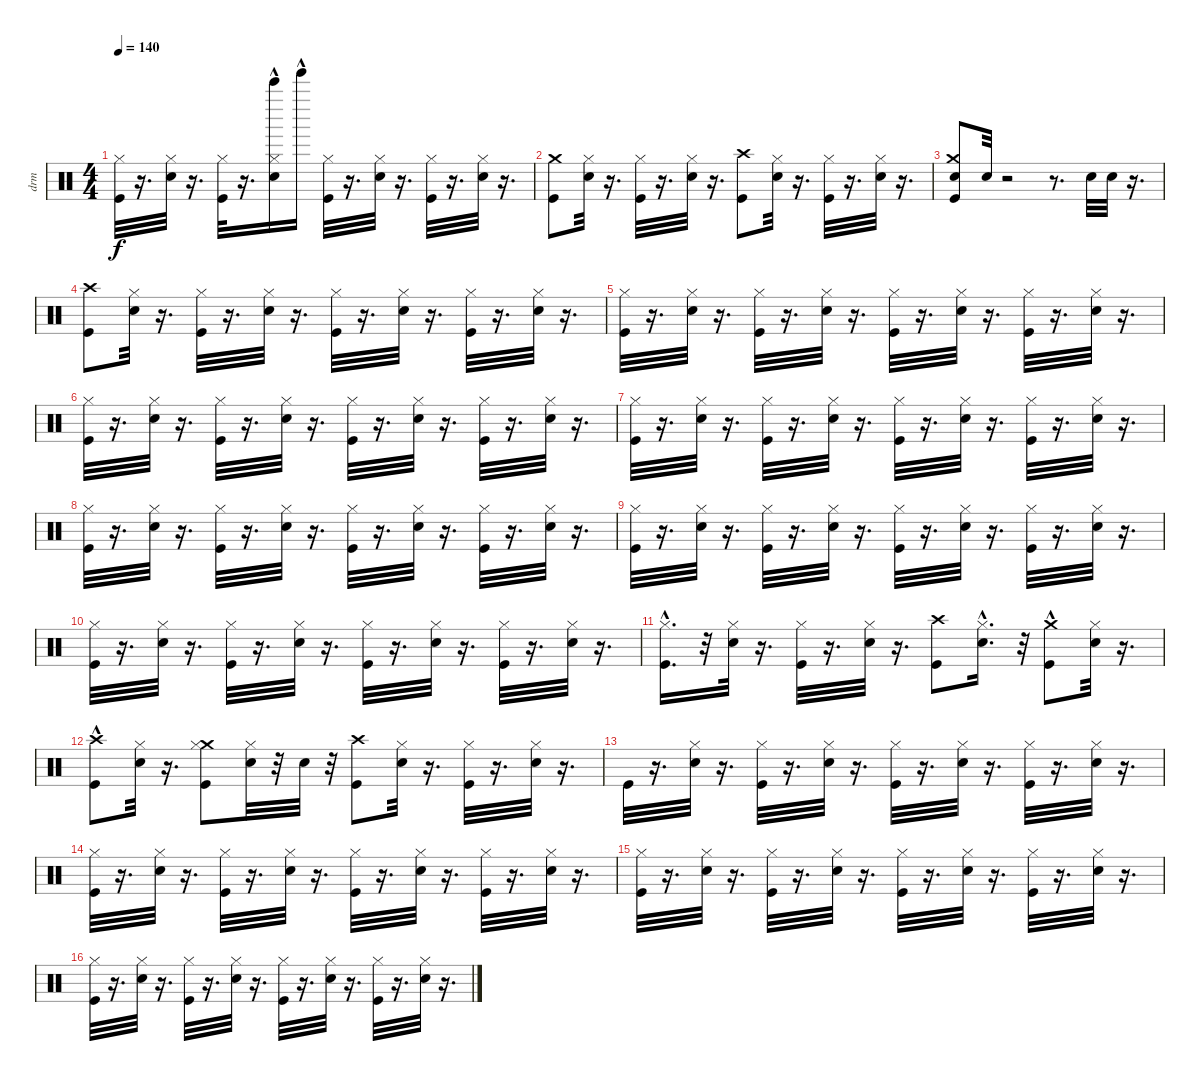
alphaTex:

\track ("drm" "drm") {instrument percussion}
\staff {score}
\articulation defaults
\ts (4 4)
\tempo 140
\clef neutral
\ks c
("Kick (hit)" "Hi-Hat (closed)").32{dy f} r.16{d} ("Snare (hit) 2" "Hi-Hat (closed)").32 r.16{d} ("Kick (hit)" "Hi-Hat (closed)").32 r.16{d} ("Bell Tree (hit)"{hac} "Snare (hit) 2" "Hi-Hat (closed)").16 "Tinkle Bell (hit)"{hac}.16 ("Kick (hit)" "Hi-Hat (closed)").32 r.16{d} ("Snare (hit) 2" "Hi-Hat (closed)").32 r.16{d} ("Kick (hit)" "Hi-Hat (closed)").32 r.16{d} ("Snare (hit) 2" "Hi-Hat (closed)").32 r.16{d} |
("Crash medium (hit)" "Kick (hit)").8 ("Snare (hit) 2" "Hi-Hat (closed)").32 r.16{d} ("Kick (hit)" "Hi-Hat (closed)").32 r.16{d} ("Snare (hit) 2" "Hi-Hat (closed)").32 r.16{d} ("Crash high (hit)" "Kick (hit)").8 ("Snare (hit) 2" "Hi-Hat (closed)").32 r.16{d} ("Kick (hit)" "Hi-Hat (closed)").32 r.16{d} ("Snare (hit) 2" "Hi-Hat (closed)").32 r.16{d} |
("Electric Snare (hit)" "Crash medium (hit)" "Kick (hit)").8 "Electric Snare (hit)".32 r.2 r.8{d} "Electric Snare (hit)".32 "Electric Snare (hit)".32 r.16{d} |
("Crash high (hit)" "Kick (hit)").8 ("Snare (hit) 2" "Hi-Hat (closed)").32 r.16{d} ("Kick (hit)" "Hi-Hat (closed)").32 r.16{d} ("Snare (hit) 2" "Hi-Hat (closed)").32 r.16{d} ("Kick (hit)" "Hi-Hat (closed)").32 r.16{d} ("Snare (hit) 2" "Hi-Hat (closed)").32 r.16{d} ("Kick (hit)" "Hi-Hat (closed)").32 r.16{d} ("Snare (hit) 2" "Hi-Hat (closed)").32 r.16{d} |
("Kick (hit)" "Hi-Hat (closed)").32 r.16{d} ("Snare (hit) 2" "Hi-Hat (closed)").32 r.16{d} ("Kick (hit)" "Hi-Hat (closed)").32 r.16{d} ("Snare (hit) 2" "Hi-Hat (closed)").32 r.16{d} ("Kick (hit)" "Hi-Hat (closed)").32 r.16{d} ("Snare (hit) 2" "Hi-Hat (closed)").32 r.16{d} ("Kick (hit)" "Hi-Hat (closed)").32 r.16{d} ("Snare (hit) 2" "Hi-Hat (closed)").32 r.16{d} |
("Kick (hit)" "Hi-Hat (closed)").32 r.16{d} ("Snare (hit) 2" "Hi-Hat (closed)").32 r.16{d} ("Kick (hit)" "Hi-Hat (closed)").32 r.16{d} ("Snare (hit) 2" "Hi-Hat (closed)").32 r.16{d} ("Kick (hit)" "Hi-Hat (closed)").32 r.16{d} ("Snare (hit) 2" "Hi-Hat (closed)").32 r.16{d} ("Kick (hit)" "Hi-Hat (closed)").32 r.16{d} ("Snare (hit) 2" "Hi-Hat (closed)").32 r.16{d} |
("Kick (hit)" "Hi-Hat (closed)").32 r.16{d} ("Snare (hit) 2" "Hi-Hat (closed)").32 r.16{d} ("Kick (hit)" "Hi-Hat (closed)").32 r.16{d} ("Snare (hit) 2" "Hi-Hat (closed)").32 r.16{d} ("Kick (hit)" "Hi-Hat (closed)").32 r.16{d} ("Snare (hit) 2" "Hi-Hat (closed)").32 r.16{d} ("Kick (hit)" "Hi-Hat (closed)").32 r.16{d} ("Snare (hit) 2" "Hi-Hat (closed)").32 r.16{d} |
("Kick (hit)" "Hi-Hat (closed)").32 r.16{d} ("Snare (hit) 2" "Hi-Hat (closed)").32 r.16{d} ("Kick (hit)" "Hi-Hat (closed)").32 r.16{d} ("Snare (hit) 2" "Hi-Hat (closed)").32 r.16{d} ("Kick (hit)" "Hi-Hat (closed)").32 r.16{d} ("Snare (hit) 2" "Hi-Hat (closed)").32 r.16{d} ("Kick (hit)" "Hi-Hat (closed)").32 r.16{d} ("Snare (hit) 2" "Hi-Hat (closed)").32 r.16{d} |
("Kick (hit)" "Hi-Hat (closed)").32 r.16{d} ("Snare (hit) 2" "Hi-Hat (closed)").32 r.16{d} ("Kick (hit)" "Hi-Hat (closed)").32 r.16{d} ("Snare (hit) 2" "Hi-Hat (closed)").32 r.16{d} ("Kick (hit)" "Hi-Hat (closed)").32 r.16{d} ("Snare (hit) 2" "Hi-Hat (closed)").32 r.16{d} ("Kick (hit)" "Hi-Hat (closed)").32 r.16{d} ("Snare (hit) 2" "Hi-Hat (closed)").32 r.16{d} |
("Kick (hit)" "Hi-Hat (closed)").32 r.16{d} ("Snare (hit) 2" "Hi-Hat (closed)").32 r.16{d} ("Kick (hit)" "Hi-Hat (closed)").32 r.16{d} ("Snare (hit) 2" "Hi-Hat (closed)").32 r.16{d} ("Kick (hit)" "Hi-Hat (closed)").32 r.16{d} ("Snare (hit) 2" "Hi-Hat (closed)").32 r.16{d} ("Kick (hit)" "Hi-Hat (closed)").32 r.16{d} ("Snare (hit) 2" "Hi-Hat (closed)").32 r.16{d} |
("Kick (hit)"{hac} "Hi-Hat (closed)"{hac}).16{d} r.32 ("Snare (hit) 2" "Hi-Hat (closed)").32 r.16{d} ("Kick (hit)" "Hi-Hat (closed)").32 r.16{d} ("Snare (hit) 2" "Hi-Hat (closed)").32 r.16{d} ("Crash high (hit)" "Kick (hit)").8 ("Snare (hit) 2"{hac} "Hi-Hat (closed)"{hac}).16{d} r.32 ("Crash medium (hit)" "Kick (hit)"{hac}).8 ("Snare (hit) 2" "Hi-Hat (closed)").32 r.16{d} |
("Crash high (hit)" "Kick (hit)"{hac}).8 ("Snare (hit) 2" "Hi-Hat (closed)").32 r.16{d} ("Crash medium (hit)" "Kick (hit)" "Hi-Hat (closed)").8 ("Snare (hit) 2" "Hi-Hat (closed)").32 r.32 "Snare (hit) 2".32 r.32 ("Crash high (hit)" "Kick (hit)").8 ("Hi-Hat (closed)" "Snare (hit) 2").32 r.16{d} ("Hi-Hat (closed)" "Kick (hit)").32 r.16{d} ("Hi-Hat (closed)" "Snare (hit) 2").32 r.16{d} |
"Kick (hit)".32 r.16{d} ("Snare (hit) 2" "Hi-Hat (closed)").32 r.16{d} ("Kick (hit)" "Hi-Hat (closed)").32 r.16{d} ("Snare (hit) 2" "Hi-Hat (closed)").32 r.16{d} ("Kick (hit)" "Hi-Hat (closed)").32 r.16{d} ("Snare (hit) 2" "Hi-Hat (closed)").32 r.16{d} ("Kick (hit)" "Hi-Hat (closed)").32 r.16{d} ("Snare (hit) 2" "Hi-Hat (closed)").32 r.16{d} |
("Kick (hit)" "Hi-Hat (closed)").32 r.16{d} ("Snare (hit) 2" "Hi-Hat (closed)").32 r.16{d} ("Kick (hit)" "Hi-Hat (closed)").32 r.16{d} ("Snare (hit) 2" "Hi-Hat (closed)").32 r.16{d} ("Kick (hit)" "Hi-Hat (closed)").32 r.16{d} ("Snare (hit) 2" "Hi-Hat (closed)").32 r.16{d} ("Kick (hit)" "Hi-Hat (closed)").32 r.16{d} ("Snare (hit) 2" "Hi-Hat (closed)").32 r.16{d} |
("Kick (hit)" "Hi-Hat (closed)").32 r.16{d} ("Snare (hit) 2" "Hi-Hat (closed)").32 r.16{d} ("Kick (hit)" "Hi-Hat (closed)").32 r.16{d} ("Snare (hit) 2" "Hi-Hat (closed)").32 r.16{d} ("Kick (hit)" "Hi-Hat (closed)").32 r.16{d} ("Snare (hit) 2" "Hi-Hat (closed)").32 r.16{d} ("Kick (hit)" "Hi-Hat (closed)").32 r.16{d} ("Snare (hit) 2" "Hi-Hat (closed)").32 r.16{d} |
("Kick (hit)" "Hi-Hat (closed)").32 r.16{d} ("Snare (hit) 2" "Hi-Hat (closed)").32 r.16{d} ("Kick (hit)" "Hi-Hat (closed)").32 r.16{d} ("Snare (hit) 2" "Hi-Hat (closed)").32 r.16{d} ("Kick (hit)" "Hi-Hat (closed)").32 r.16{d} ("Snare (hit) 2" "Hi-Hat (closed)").32 r.16{d} ("Kick (hit)" "Hi-Hat (closed)").32 r.16{d} ("Snare (hit) 2" "Hi-Hat (closed)").32 r.16{d}
